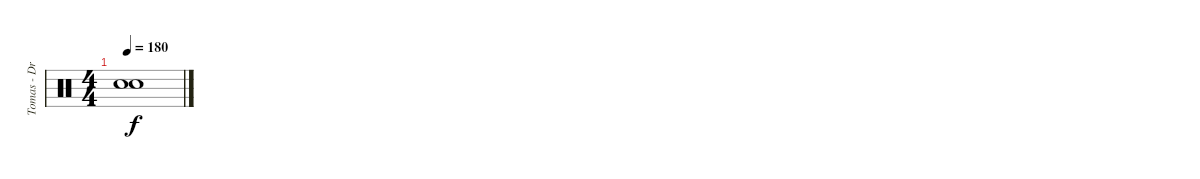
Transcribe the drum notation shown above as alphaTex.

\track ("Tomas - Drums" "Tomas - Dr") {instrument percussion}
\staff {score}
\articulation defaults
\ts (4 4)
\tempo 180
\clef neutral
\ks c
("Snare (hit)"{t} "Snare (hit)"{t}).1{dy f}
